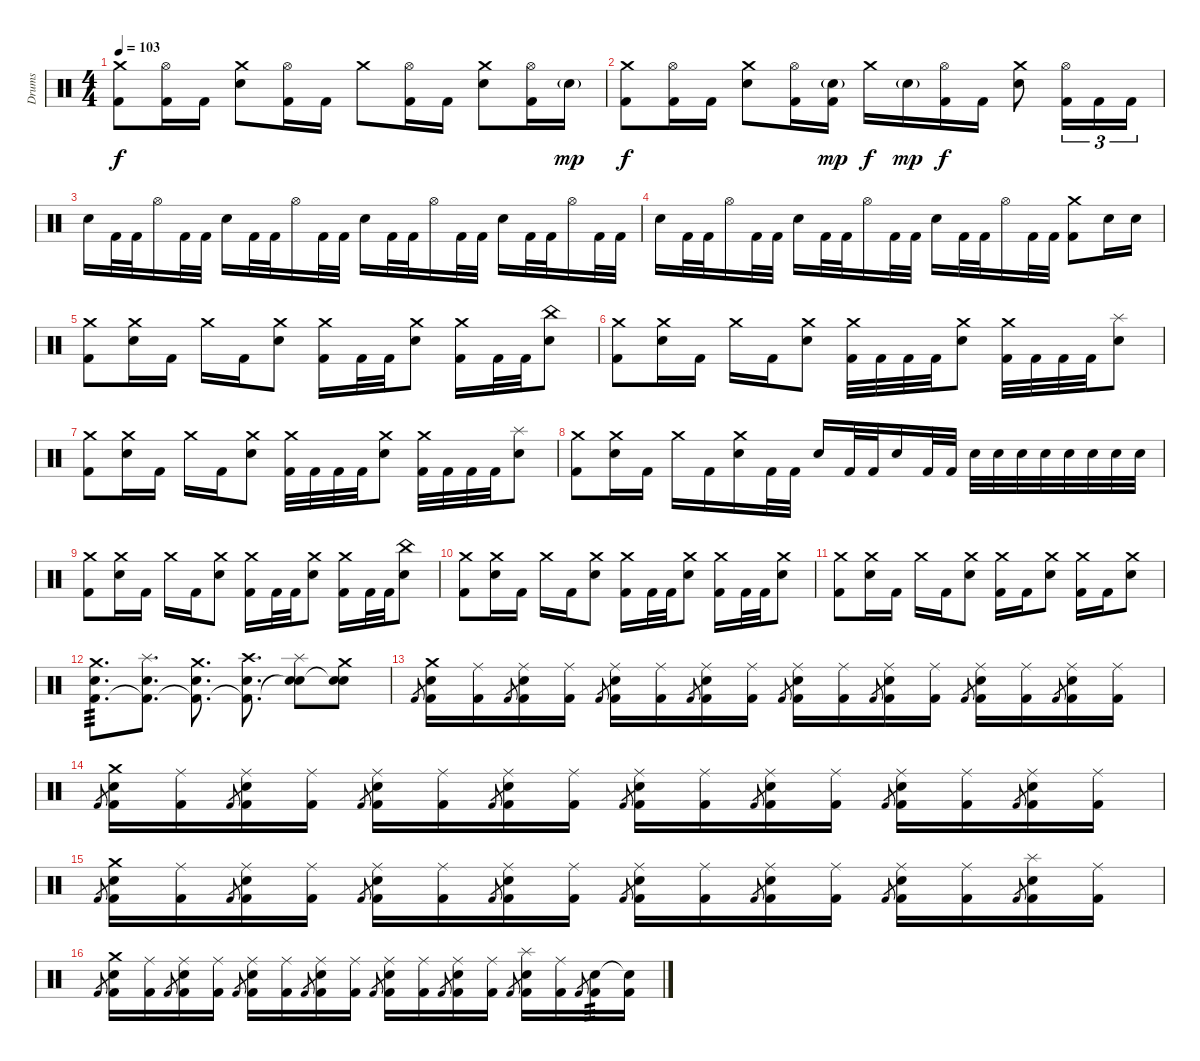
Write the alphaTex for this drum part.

\track ("Drums" "Drums") {instrument percussion}
\staff {score}
\articulation defaults
\ts (4 4)
\tempo 103
\clef neutral
\ks c
("Crash medium (hit)" "Kick (hit) 2").8{dy f} ("Hi-Hat (open)" "Kick (hit) 2").16 "Kick (hit) 2".16 ("Crash medium (hit)" "Snare (hit) 2").8 ("Hi-Hat (open)" "Kick (hit) 2").16 "Kick (hit) 2".16 "Crash medium (hit)".8 ("Hi-Hat (open)" "Kick (hit) 2").16 "Kick (hit) 2".16 ("Crash medium (hit)" "Snare (hit) 2").8 ("Hi-Hat (open)" "Kick (hit) 2").16 "Snare (hit) 2"{g}.16{dy mp} |
("Crash medium (hit)" "Kick (hit) 2").8{dy f} ("Hi-Hat (open)" "Kick (hit) 2").16 "Kick (hit) 2".16 ("Crash medium (hit)" "Snare (hit) 2").8 ("Hi-Hat (open)" "Kick (hit) 2").16 ("Snare (hit) 2"{g} "Kick (hit) 2").16{dy mp} "Crash medium (hit)".16{dy f} "Snare (hit) 2"{g}.16{dy mp} ("Hi-Hat (open)" "Kick (hit) 2").16{dy f} "Kick (hit) 2".16 ("Crash medium (hit)" "Snare (hit) 2").8 ("Hi-Hat (open)" "Kick (hit) 2").16{tu (3 2)} "Kick (hit) 2".16{tu (3 2)} "Kick (hit) 2".16{tu (3 2)} |
"Snare (hit) 2".16 "Kick (hit) 2".32 "Kick (hit) 2".32 "Hi-Hat (open)".16 "Kick (hit) 2".32 "Kick (hit) 2".32 "Snare (hit) 2".16 "Kick (hit) 2".32 "Kick (hit) 2".32 "Hi-Hat (open)".16 "Kick (hit) 2".32 "Kick (hit) 2".32 "Snare (hit) 2".16 "Kick (hit) 2".32 "Kick (hit) 2".32 "Hi-Hat (open)".16 "Kick (hit) 2".32 "Kick (hit) 2".32 "Snare (hit) 2".16 "Kick (hit) 2".32 "Kick (hit) 2".32 "Hi-Hat (open)".16 "Kick (hit) 2".32 "Kick (hit) 2".32 |
"Snare (hit) 2".16 "Kick (hit) 2".32 "Kick (hit) 2".32 "Hi-Hat (open)".16 "Kick (hit) 2".32 "Kick (hit) 2".32 "Snare (hit) 2".16 "Kick (hit) 2".32 "Kick (hit) 2".32 "Hi-Hat (open)".16 "Kick (hit) 2".32 "Kick (hit) 2".32 "Snare (hit) 2".16 "Kick (hit) 2".32 "Kick (hit) 2".32 "Hi-Hat (open)".16 "Kick (hit) 2".32 "Kick (hit) 2".32 ("Crash medium (hit)" "Kick (hit) 2").8 "Snare (hit) 2".16 "Snare (hit) 2".16 |
("Crash medium (hit)" "Kick (hit) 2").8 ("Crash medium (hit)" "Snare (hit) 2").16 "Kick (hit) 2".16 "Crash medium (hit)".16 "Kick (hit) 2".16 ("Crash medium (hit)" "Snare (hit) 2").8 ("Crash medium (hit)" "Kick (hit) 2").16 "Kick (hit) 2".32 "Kick (hit) 2".32 ("Crash medium (hit)" "Snare (hit) 2").8 ("Crash medium (hit)" "Kick (hit) 2").16 "Kick (hit) 2".32 "Kick (hit) 2".32 ("China (hit)" "Snare (hit) 2").8 |
("Crash medium (hit)" "Kick (hit) 2").8 ("Crash medium (hit)" "Snare (hit) 2").16 "Kick (hit) 2".16 "Crash medium (hit)".16 "Kick (hit) 2".16 ("Crash medium (hit)" "Snare (hit) 2").8 ("Crash medium (hit)" "Kick (hit) 2").32 "Kick (hit) 2".32 "Kick (hit) 2".32 "Kick (hit) 2".32 ("Crash medium (hit)" "Snare (hit) 2").8 ("Crash medium (hit)" "Kick (hit) 2").32 "Kick (hit) 2".32 "Kick (hit) 2".32 "Kick (hit) 2".32 ("Splash (hit)" "Snare (hit) 2").8 |
("Crash medium (hit)" "Kick (hit) 2").8 ("Crash medium (hit)" "Snare (hit) 2").16 "Kick (hit) 2".16 "Crash medium (hit)".16 "Kick (hit) 2".16 ("Crash medium (hit)" "Snare (hit) 2").8 ("Crash medium (hit)" "Kick (hit) 2").32 "Kick (hit) 2".32 "Kick (hit) 2".32 "Kick (hit) 2".32 ("Crash medium (hit)" "Snare (hit) 2").8 ("Crash medium (hit)" "Kick (hit) 2").32 "Kick (hit) 2".32 "Kick (hit) 2".32 "Kick (hit) 2".32 ("Splash (hit)" "Snare (hit) 2").8 |
("Crash medium (hit)" "Kick (hit) 2").8 ("Crash medium (hit)" "Snare (hit) 2").16 "Kick (hit) 2".16 "Crash medium (hit)".16 "Kick (hit) 2".16 ("Crash medium (hit)" "Snare (hit) 2").16 "Kick (hit) 2".32 "Kick (hit) 2".32 "Snare (hit) 2".16 "Kick (hit) 2".32 "Kick (hit) 2".32 "Snare (hit) 2".16 "Kick (hit) 2".32 "Kick (hit) 2".32 "Snare (hit) 2".32 "Snare (hit) 2".32 "Snare (hit) 2".32 "Snare (hit) 2".32 "Snare (hit) 2".32 "Snare (hit) 2".32 "Snare (hit) 2".32 "Snare (hit) 2".32 |
("Crash medium (hit)" "Kick (hit) 2").8 ("Crash medium (hit)" "Snare (hit) 2").16 "Kick (hit) 2".16 "Crash medium (hit)".16 "Kick (hit) 2".16 ("Crash medium (hit)" "Snare (hit) 2").8 ("Crash medium (hit)" "Kick (hit) 2").16 "Kick (hit) 2".32 "Kick (hit) 2".32 ("Crash medium (hit)" "Snare (hit) 2").8 ("Crash medium (hit)" "Kick (hit) 2").16 "Kick (hit) 2".32 "Kick (hit) 2".32 ("China (hit)" "Snare (hit) 2").8 |
("Crash medium (hit)" "Kick (hit) 2").8 ("Crash medium (hit)" "Snare (hit) 2").16 "Kick (hit) 2".16 "Crash medium (hit)".16 "Kick (hit) 2".16 ("Crash medium (hit)" "Snare (hit) 2").8 ("Crash medium (hit)" "Kick (hit) 2").16 "Kick (hit) 2".32 "Kick (hit) 2".32 ("Crash medium (hit)" "Snare (hit) 2").8 ("Crash medium (hit)" "Kick (hit) 2").16 "Kick (hit) 2".32 "Kick (hit) 2".32 ("Crash medium (hit)" "Snare (hit) 2").8 |
("Crash medium (hit)" "Kick (hit) 2").8 ("Crash medium (hit)" "Snare (hit) 2").16 "Kick (hit) 2".16 "Crash medium (hit)".16 "Kick (hit) 2".16 ("Crash medium (hit)" "Snare (hit) 2").8 ("Crash medium (hit)" "Kick (hit) 2").16 "Kick (hit) 2".16 ("Crash medium (hit)" "Snare (hit) 2").8 ("Crash medium (hit)" "Kick (hit) 2").16 "Kick (hit) 2".16 ("Crash medium (hit)" "Snare (hit) 2").8 |
("Crash medium (hit)" "Snare (hit) 2" "Kick (hit) 2").8{d tp 3} ("Splash (hit)" "Snare (hit) 2" "Kick (hit) 2"{t}).8{d} ("Crash medium (hit)" "Snare (hit) 2" "Kick (hit) 2"{t}).8{d} ("Crash high (hit)" "Snare (hit) 2" "Kick (hit) 2"{t}).8{d} ("Splash (hit)" "Snare (hit) 2" "Snare (hit)"{t}).8 ("Crash medium (hit)" "Snare (hit) 2" "Snare (hit)"{t}).8 |
"Kick (hit) 2".8{gr} ("Crash medium (hit)" "Snare (hit) 2" "Kick (hit) 2").16 ("Ride (middle)" "Kick (hit) 2").16 "Kick (hit) 2".8{gr} ("Ride (middle)" "Snare (hit) 2" "Kick (hit) 2").16 ("Ride (middle)" "Kick (hit) 2").16 "Kick (hit) 2".8{gr} ("Ride (middle)" "Snare (hit) 2" "Kick (hit) 2").16 ("Ride (middle)" "Kick (hit) 2").16 "Kick (hit) 2".8{gr} ("Ride (middle)" "Snare (hit) 2" "Kick (hit) 2").16 ("Ride (middle)" "Kick (hit) 2").16 "Kick (hit) 2".8{gr} ("Ride (middle)" "Snare (hit) 2" "Kick (hit) 2").16 ("Ride (middle)" "Kick (hit) 2").16 "Kick (hit) 2".8{gr} ("Ride (middle)" "Snare (hit) 2" "Kick (hit) 2").16 ("Ride (middle)" "Kick (hit) 2").16 "Kick (hit) 2".8{gr} ("Ride (middle)" "Snare (hit) 2" "Kick (hit) 2").16 ("Ride (middle)" "Kick (hit) 2").16 "Kick (hit) 2".8{gr} ("Ride (middle)" "Snare (hit) 2" "Kick (hit) 2").16 ("Ride (middle)" "Kick (hit) 2").16 |
"Kick (hit) 2".8{gr} ("Crash medium (hit)" "Snare (hit) 2" "Kick (hit) 2").16 ("Ride (middle)" "Kick (hit) 2").16 "Kick (hit) 2".8{gr} ("Ride (middle)" "Snare (hit) 2" "Kick (hit) 2").16 ("Ride (middle)" "Kick (hit) 2").16 "Kick (hit) 2".8{gr} ("Ride (middle)" "Snare (hit) 2" "Kick (hit) 2").16 ("Ride (middle)" "Kick (hit) 2").16 "Kick (hit) 2".8{gr} ("Ride (middle)" "Snare (hit) 2" "Kick (hit) 2").16 ("Ride (middle)" "Kick (hit) 2").16 "Kick (hit) 2".8{gr} ("Ride (middle)" "Snare (hit) 2" "Kick (hit) 2").16 ("Ride (middle)" "Kick (hit) 2").16 "Kick (hit) 2".8{gr} ("Ride (middle)" "Snare (hit) 2" "Kick (hit) 2").16 ("Ride (middle)" "Kick (hit) 2").16 "Kick (hit) 2".8{gr} ("Ride (middle)" "Snare (hit) 2" "Kick (hit) 2").16 ("Ride (middle)" "Kick (hit) 2").16 "Kick (hit) 2".8{gr} ("Ride (middle)" "Snare (hit) 2" "Kick (hit) 2").16 ("Ride (middle)" "Kick (hit) 2").16 |
"Kick (hit) 2".8{gr} ("Crash medium (hit)" "Snare (hit) 2" "Kick (hit) 2").16 ("Ride (middle)" "Kick (hit) 2").16 "Kick (hit) 2".8{gr} ("Ride (middle)" "Snare (hit) 2" "Kick (hit) 2").16 ("Ride (middle)" "Kick (hit) 2").16 "Kick (hit) 2".8{gr} ("Ride (middle)" "Snare (hit) 2" "Kick (hit) 2").16 ("Ride (middle)" "Kick (hit) 2").16 "Kick (hit) 2".8{gr} ("Ride (middle)" "Snare (hit) 2" "Kick (hit) 2").16 ("Ride (middle)" "Kick (hit) 2").16 "Kick (hit) 2".8{gr} ("Ride (middle)" "Snare (hit) 2" "Kick (hit) 2").16 ("Ride (middle)" "Kick (hit) 2").16 "Kick (hit) 2".8{gr} ("Ride (middle)" "Snare (hit) 2" "Kick (hit) 2").16 ("Ride (middle)" "Kick (hit) 2").16 "Kick (hit) 2".8{gr} ("Ride (middle)" "Snare (hit) 2" "Kick (hit) 2").16 ("Ride (middle)" "Kick (hit) 2").16 "Kick (hit) 2".8{gr} ("Splash (hit)" "Snare (hit) 2" "Kick (hit) 2").16 ("Ride (middle)" "Kick (hit) 2").16 |
"Kick (hit) 2".8{gr} ("Crash medium (hit)" "Snare (hit) 2" "Kick (hit) 2").16 ("Ride (middle)" "Kick (hit) 2").16 "Kick (hit) 2".8{gr} ("Ride (middle)" "Snare (hit) 2" "Kick (hit) 2").16 ("Ride (middle)" "Kick (hit) 2").16 "Kick (hit) 2".8{gr} ("Ride (middle)" "Snare (hit) 2" "Kick (hit) 2").16 ("Ride (middle)" "Kick (hit) 2").16 "Kick (hit) 2".8{gr} ("Ride (middle)" "Snare (hit) 2" "Kick (hit) 2").16 ("Ride (middle)" "Kick (hit) 2").16 "Kick (hit) 2".8{gr} ("Ride (middle)" "Snare (hit) 2" "Kick (hit) 2").16 ("Ride (middle)" "Kick (hit) 2").16 "Kick (hit) 2".8{gr} ("Ride (middle)" "Snare (hit) 2" "Kick (hit) 2").16 ("Ride (middle)" "Kick (hit) 2").16 "Kick (hit) 2".8{gr} ("Splash (hit)" "Snare (hit) 2" "Kick (hit) 2").16 ("Ride (middle)" "Kick (hit) 2").16 "Kick (hit) 2".8{gr} ("Snare (hit) 2" "Kick (hit) 2").16{tp 3} ("Snare (hit)"{t} "Kick (hit) 2").16
